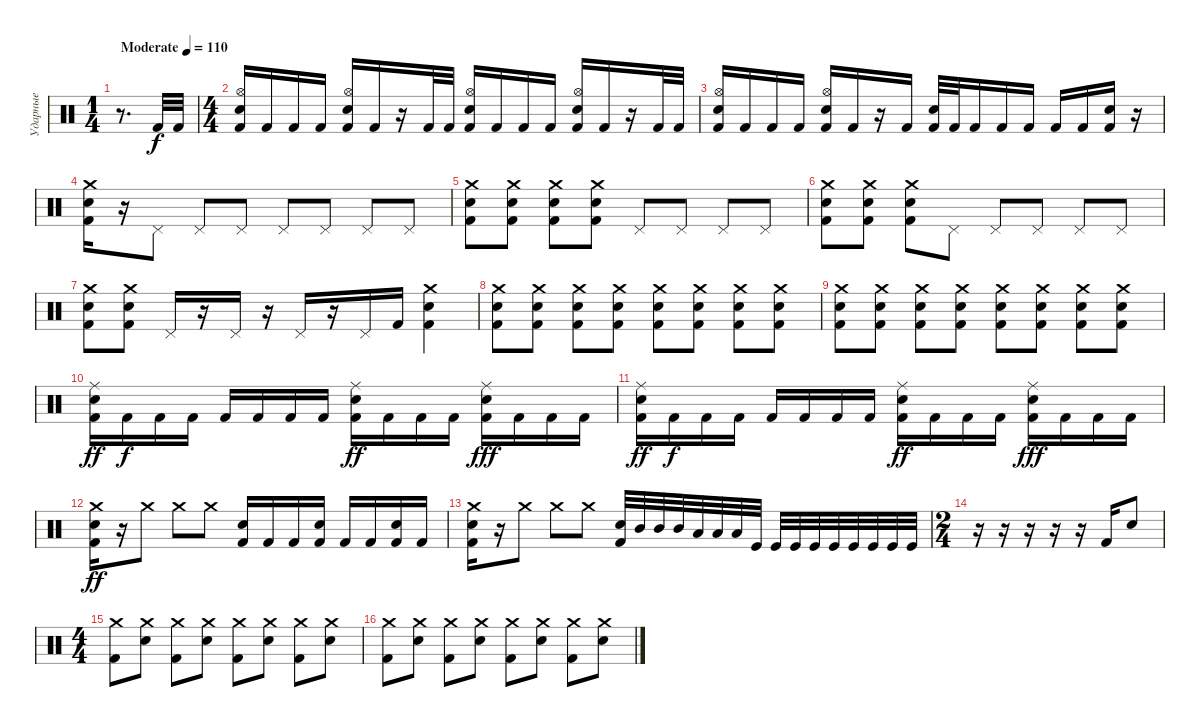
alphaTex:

\track ("Ударные" "Ударные") {instrument percussion}
\staff {score}
\articulation defaults
\ts (1 4)
\tempo (110 "Moderate")
\clef neutral
\ks c
r.8{d dy f} "Kick (hit) 2".32 "Kick (hit) 2".32 |
\ts (4 4)
("Hi-Hat (open)" "Electric Snare (hit)" "Kick (hit) 2").16 "Kick (hit) 2".16 "Kick (hit) 2".16 "Kick (hit) 2".16 ("Hi-Hat (open)" "Electric Snare (hit)" "Kick (hit) 2").16 "Kick (hit) 2".16 r.16 "Kick (hit) 2".32 "Kick (hit) 2".32 ("Hi-Hat (open)" "Electric Snare (hit)" "Kick (hit) 2").16 "Kick (hit) 2".16 "Kick (hit) 2".16 "Kick (hit) 2".16 ("Hi-Hat (open)" "Electric Snare (hit)" "Kick (hit) 2").16 "Kick (hit) 2".16 r.16 "Kick (hit) 2".32 "Kick (hit) 2".32 |
("Hi-Hat (open)" "Electric Snare (hit)" "Kick (hit) 2").16 "Kick (hit) 2".16 "Kick (hit) 2".16 "Kick (hit) 2".16 ("Hi-Hat (open)" "Electric Snare (hit)" "Kick (hit) 2").16 "Kick (hit) 2".16 r.16 "Kick (hit) 2".16 ("Electric Snare (hit)" "Kick (hit) 2").32 "Kick (hit) 2".32 "Kick (hit) 2".16 "Kick (hit) 2".16 "Kick (hit) 2".16 "Kick (hit) 2".16 "Kick (hit) 2".16 ("Electric Snare (hit)" "Kick (hit) 2").16 r.16 |
("Crash medium (hit)" "Electric Snare (hit)" "Kick (hit) 2").16 r.16 "Pedal Hi-Hat (hit)".8 "Pedal Hi-Hat (hit)".8 "Pedal Hi-Hat (hit)".8 "Pedal Hi-Hat (hit)".8 "Pedal Hi-Hat (hit)".8 "Pedal Hi-Hat (hit)".8 "Pedal Hi-Hat (hit)".8 |
("Crash medium (hit)" "Electric Snare (hit)" "Kick (hit) 2").8 ("Crash medium (hit)" "Electric Snare (hit)" "Kick (hit) 2").8 ("Crash medium (hit)" "Electric Snare (hit)" "Kick (hit) 2").8 ("Crash medium (hit)" "Electric Snare (hit)" "Kick (hit) 2").8 "Pedal Hi-Hat (hit)".8 "Pedal Hi-Hat (hit)".8 "Pedal Hi-Hat (hit)".8 "Pedal Hi-Hat (hit)".8 |
("Crash medium (hit)" "Electric Snare (hit)" "Kick (hit) 2").8 ("Crash medium (hit)" "Electric Snare (hit)" "Kick (hit) 2").8 ("Crash medium (hit)" "Electric Snare (hit)" "Kick (hit) 2").8 "Pedal Hi-Hat (hit)".8 "Pedal Hi-Hat (hit)".8 "Pedal Hi-Hat (hit)".8 "Pedal Hi-Hat (hit)".8 "Pedal Hi-Hat (hit)".8 |
("Crash medium (hit)" "Electric Snare (hit)" "Kick (hit) 2").8 ("Crash medium (hit)" "Electric Snare (hit)" "Kick (hit) 2").8 "Pedal Hi-Hat (hit)".16 r.16 "Pedal Hi-Hat (hit)".16 r.16 "Pedal Hi-Hat (hit)".16 r.16 "Pedal Hi-Hat (hit)".16 "Kick (hit) 2".16 ("Crash medium (hit)" "Electric Snare (hit)" "Kick (hit) 2").4 |
("Crash medium (hit)" "Electric Snare (hit)" "Kick (hit) 2").8 ("Crash medium (hit)" "Electric Snare (hit)" "Kick (hit) 2").8 ("Crash medium (hit)" "Electric Snare (hit)" "Kick (hit) 2").8 ("Crash medium (hit)" "Electric Snare (hit)" "Kick (hit) 2").8 ("Crash medium (hit)" "Electric Snare (hit)" "Kick (hit) 2").8 ("Crash medium (hit)" "Electric Snare (hit)" "Kick (hit) 2").8 ("Crash medium (hit)" "Electric Snare (hit)" "Kick (hit) 2").8 ("Crash medium (hit)" "Electric Snare (hit)" "Kick (hit) 2").8 |
("Crash medium (hit)" "Electric Snare (hit)" "Kick (hit) 2").8 ("Crash medium (hit)" "Electric Snare (hit)" "Kick (hit) 2").8 ("Crash medium (hit)" "Electric Snare (hit)" "Kick (hit) 2").8 ("Crash medium (hit)" "Electric Snare (hit)" "Kick (hit) 2").8 ("Crash medium (hit)" "Electric Snare (hit)" "Kick (hit) 2").8 ("Crash medium (hit)" "Electric Snare (hit)" "Kick (hit) 2").8 ("Crash medium (hit)" "Electric Snare (hit)" "Kick (hit) 2").8 ("Crash medium (hit)" "Electric Snare (hit)" "Kick (hit) 2").8 |
("Ride (middle)" "Electric Snare (hit)" "Kick (hit) 2").16{dy ff} "Kick (hit) 2".16{dy f} "Kick (hit) 2".16 "Kick (hit) 2".16 "Kick (hit) 2".16 "Kick (hit) 2".16 "Kick (hit) 2".16 "Kick (hit) 2".16 ("Ride (middle)" "Electric Snare (hit)" "Kick (hit) 2").16{dy ff} "Kick (hit) 2".16 "Kick (hit) 2".16 "Kick (hit) 2".16 ("Ride (middle)" "Electric Snare (hit)" "Kick (hit) 2").16{dy fff} "Kick (hit) 2".16 "Kick (hit) 2".16 "Kick (hit) 2".16 |
("Ride (middle)" "Electric Snare (hit)" "Kick (hit) 2").16{dy ff} "Kick (hit) 2".16{dy f} "Kick (hit) 2".16 "Kick (hit) 2".16 "Kick (hit) 2".16 "Kick (hit) 2".16 "Kick (hit) 2".16 "Kick (hit) 2".16 ("Ride (middle)" "Electric Snare (hit)" "Kick (hit) 2").16{dy ff} "Kick (hit) 2".16 "Kick (hit) 2".16 "Kick (hit) 2".16 ("Ride (middle)" "Electric Snare (hit)" "Kick (hit) 2").16{dy fff} "Kick (hit) 2".16 "Kick (hit) 2".16 "Kick (hit) 2".16 |
("Crash medium (hit)" "Electric Snare (hit)" "Kick (hit) 2").16{dy ff} r.16 "Crash medium (hit)".8 "Crash medium (hit)".8 "Crash medium (hit)".8 ("Electric Snare (hit)" "Kick (hit) 2").16 "Kick (hit) 2".16 "Kick (hit) 2".16 ("Electric Snare (hit)" "Kick (hit) 2").16 "Kick (hit) 2".16 "Kick (hit) 2".16 ("Electric Snare (hit)" "Kick (hit) 2").16 "Kick (hit) 2".16 |
("Crash medium (hit)" "Electric Snare (hit)" "Kick (hit) 2").16 r.16 "Crash medium (hit)".8 "Crash medium (hit)".8 "Crash medium (hit)".8 ("Electric Snare (hit)" "Kick (hit) 2").32 "Mid Tom (hit)".32 "Mid Tom (hit)".32 "Mid Tom (hit)".32 "Low Tom (hit)".32 "Low Tom (hit)".32 "Low Tom (hit)".32 "Kick (hit)".32 "Kick (hit)".32 "Kick (hit)".32 "Kick (hit)".32 "Kick (hit)".32 "Kick (hit)".32 "Kick (hit)".32 "Kick (hit)".32 "Kick (hit)".32 |
\ts (2 4)
r.16 r.16 r.16 r.16 r.16 "Kick (hit) 2".16 "Electric Snare (hit)".8 |
\ts (4 4)
("Crash medium (hit)" "Kick (hit) 2").8 ("Crash medium (hit)" "Electric Snare (hit)").8 ("Crash medium (hit)" "Kick (hit) 2").8 ("Crash medium (hit)" "Electric Snare (hit)").8 ("Crash medium (hit)" "Kick (hit) 2").8 ("Crash medium (hit)" "Electric Snare (hit)").8 ("Crash medium (hit)" "Kick (hit) 2").8 ("Crash medium (hit)" "Electric Snare (hit)").8 |
("Crash medium (hit)" "Kick (hit) 2").8 ("Crash medium (hit)" "Electric Snare (hit)").8 ("Crash medium (hit)" "Kick (hit) 2").8 ("Crash medium (hit)" "Electric Snare (hit)").8 ("Crash medium (hit)" "Kick (hit) 2").8 ("Crash medium (hit)" "Electric Snare (hit)").8 ("Crash medium (hit)" "Kick (hit) 2").8 ("Crash medium (hit)" "Electric Snare (hit)").8
